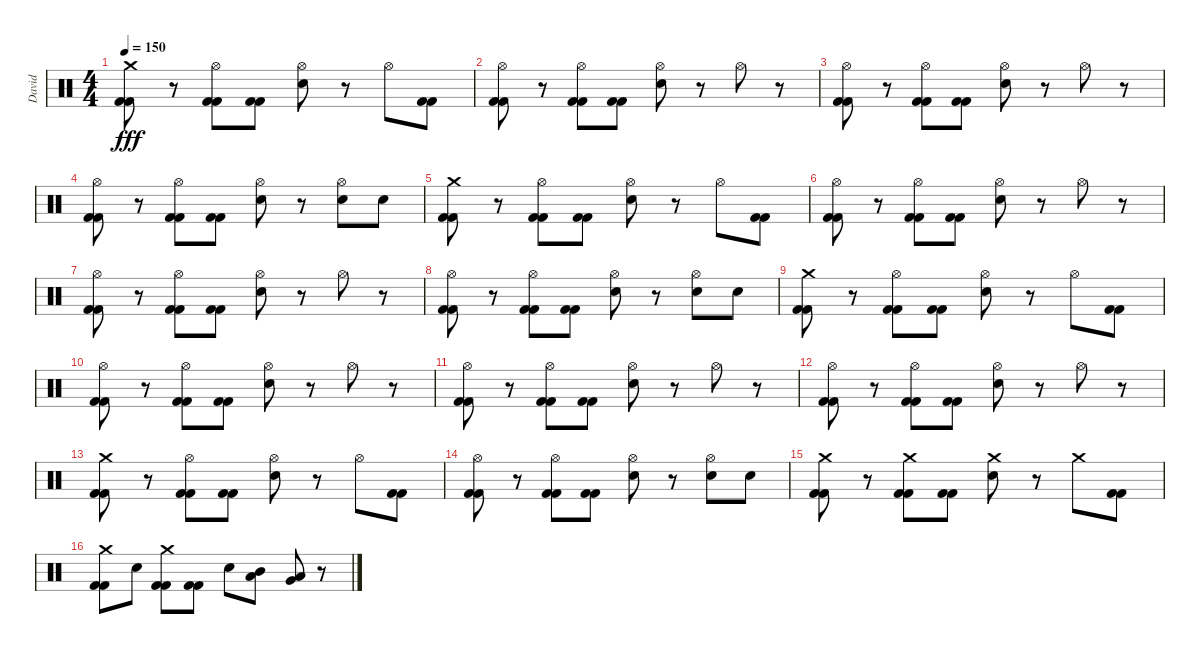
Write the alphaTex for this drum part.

\track ("David" "David") {instrument percussion}
\staff {score}
\articulation defaults
\ts (4 4)
\tempo 150
\clef neutral
\ks c
("Crash medium (hit)" "Kick (hit) 2" "Kick (hit) 2").8{dy fff} r.8 ("Hi-Hat (open)" "Kick (hit) 2" "Kick (hit) 2").8 ("Kick (hit) 2" "Kick (hit) 2").8 ("Hi-Hat (open)" "Electric Snare (hit)").8 r.8 "Hi-Hat (open)".8 ("Kick (hit) 2" "Kick (hit) 2").8 |
("Hi-Hat (open)" "Kick (hit) 2" "Kick (hit) 2").8 r.8 ("Hi-Hat (open)" "Kick (hit) 2" "Kick (hit) 2").8 ("Kick (hit) 2" "Kick (hit) 2").8 ("Hi-Hat (open)" "Electric Snare (hit)").8 r.8 "Hi-Hat (open)".8 r.8 |
("Hi-Hat (open)" "Kick (hit) 2" "Kick (hit) 2").8 r.8 ("Hi-Hat (open)" "Kick (hit) 2" "Kick (hit) 2").8 ("Kick (hit) 2" "Kick (hit) 2").8 ("Hi-Hat (open)" "Electric Snare (hit)").8 r.8 "Hi-Hat (open)".8 r.8 |
("Hi-Hat (open)" "Kick (hit) 2" "Kick (hit) 2").8 r.8 ("Hi-Hat (open)" "Kick (hit) 2" "Kick (hit) 2").8 ("Kick (hit) 2" "Kick (hit) 2").8 ("Hi-Hat (open)" "Electric Snare (hit)").8 r.8 ("Hi-Hat (open)" "Electric Snare (hit)").8 "Electric Snare (hit)".8 |
("Crash medium (hit)" "Kick (hit) 2" "Kick (hit) 2").8 r.8 ("Hi-Hat (open)" "Kick (hit) 2" "Kick (hit) 2").8 ("Kick (hit) 2" "Kick (hit) 2").8 ("Hi-Hat (open)" "Electric Snare (hit)").8 r.8 "Hi-Hat (open)".8 ("Kick (hit) 2" "Kick (hit) 2").8 |
("Hi-Hat (open)" "Kick (hit) 2" "Kick (hit) 2").8 r.8 ("Hi-Hat (open)" "Kick (hit) 2" "Kick (hit) 2").8 ("Kick (hit) 2" "Kick (hit) 2").8 ("Hi-Hat (open)" "Electric Snare (hit)").8 r.8 "Hi-Hat (open)".8 r.8 |
("Hi-Hat (open)" "Kick (hit) 2" "Kick (hit) 2").8 r.8 ("Hi-Hat (open)" "Kick (hit) 2" "Kick (hit) 2").8 ("Kick (hit) 2" "Kick (hit) 2").8 ("Hi-Hat (open)" "Electric Snare (hit)").8 r.8 "Hi-Hat (open)".8 r.8 |
("Hi-Hat (open)" "Kick (hit) 2" "Kick (hit) 2").8 r.8 ("Hi-Hat (open)" "Kick (hit) 2" "Kick (hit) 2").8 ("Kick (hit) 2" "Kick (hit) 2").8 ("Hi-Hat (open)" "Electric Snare (hit)").8 r.8 ("Hi-Hat (open)" "Electric Snare (hit)").8 "Electric Snare (hit)".8 |
("Crash medium (hit)" "Kick (hit) 2" "Kick (hit) 2").8 r.8 ("Hi-Hat (open)" "Kick (hit) 2" "Kick (hit) 2").8 ("Kick (hit) 2" "Kick (hit) 2").8 ("Hi-Hat (open)" "Electric Snare (hit)").8 r.8 "Hi-Hat (open)".8 ("Kick (hit) 2" "Kick (hit) 2").8 |
("Hi-Hat (open)" "Kick (hit) 2" "Kick (hit) 2").8 r.8 ("Hi-Hat (open)" "Kick (hit) 2" "Kick (hit) 2").8 ("Kick (hit) 2" "Kick (hit) 2").8 ("Hi-Hat (open)" "Electric Snare (hit)").8 r.8 "Hi-Hat (open)".8 r.8 |
("Hi-Hat (open)" "Kick (hit) 2" "Kick (hit) 2").8 r.8 ("Hi-Hat (open)" "Kick (hit) 2" "Kick (hit) 2").8 ("Kick (hit) 2" "Kick (hit) 2").8 ("Hi-Hat (open)" "Electric Snare (hit)").8 r.8 "Hi-Hat (open)".8 r.8 |
("Hi-Hat (open)" "Kick (hit) 2" "Kick (hit) 2").8 r.8 ("Hi-Hat (open)" "Kick (hit) 2" "Kick (hit) 2").8 ("Kick (hit) 2" "Kick (hit) 2").8 ("Hi-Hat (open)" "Electric Snare (hit)").8 r.8 "Hi-Hat (open)".8 r.8 |
("Crash medium (hit)" "Kick (hit) 2" "Kick (hit) 2").8 r.8 ("Hi-Hat (open)" "Kick (hit) 2" "Kick (hit) 2").8 ("Kick (hit) 2" "Kick (hit) 2").8 ("Hi-Hat (open)" "Electric Snare (hit)").8 r.8 "Hi-Hat (open)".8 ("Kick (hit) 2" "Kick (hit) 2").8 |
("Hi-Hat (open)" "Kick (hit) 2" "Kick (hit) 2").8 r.8 ("Hi-Hat (open)" "Kick (hit) 2" "Kick (hit) 2").8 ("Kick (hit) 2" "Kick (hit) 2").8 ("Hi-Hat (open)" "Electric Snare (hit)").8 r.8 ("Hi-Hat (open)" "Electric Snare (hit)").8 "Electric Snare (hit)".8 |
("Crash medium (hit)" "Kick (hit) 2" "Kick (hit) 2").8 r.8 ("Crash medium (hit)" "Kick (hit) 2" "Kick (hit) 2").8 ("Kick (hit) 2" "Kick (hit) 2").8 ("Crash medium (hit)" "Electric Snare (hit)").8 r.8 "Crash medium (hit)".8 ("Kick (hit) 2" "Kick (hit) 2").8 |
("Crash medium (hit)" "Kick (hit) 2" "Kick (hit) 2").8 "Electric Snare (hit)".8 ("Crash medium (hit)" "Kick (hit) 2" "Kick (hit) 2").8 ("Kick (hit) 2" "Kick (hit) 2").8 "Electric Snare (hit)".8 ("Mid Tom (hit)" "Low Tom (hit)").8 ("Low Floor Tom (hit)" "Very Low Tom (hit)").8 r.8
